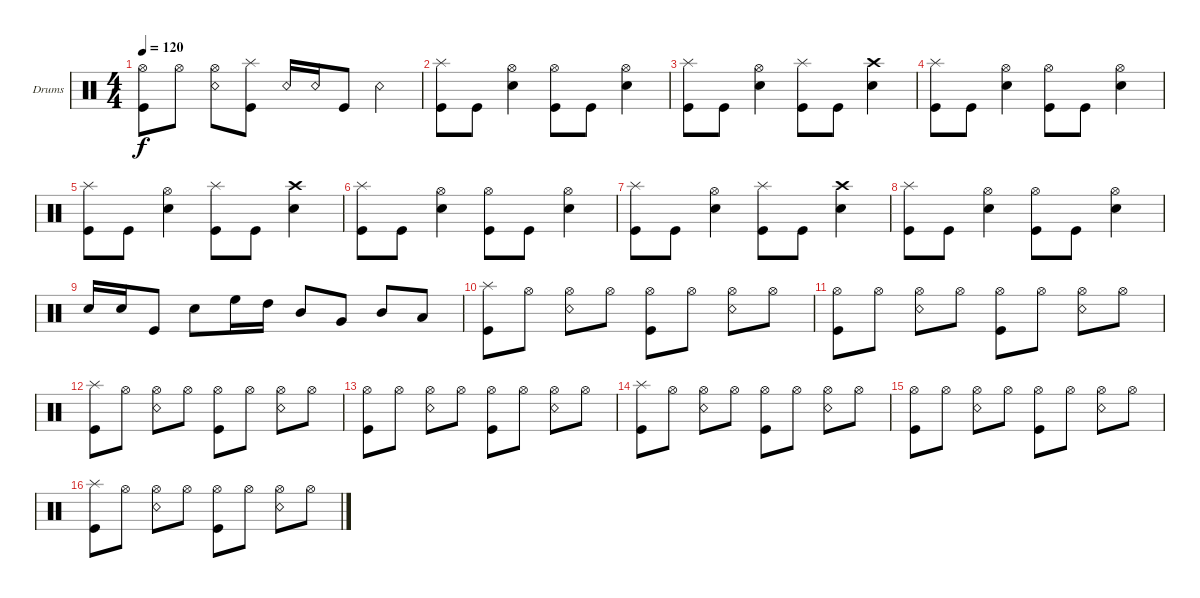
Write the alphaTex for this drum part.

\defaultSystemsLayout 4
\bracketExtendMode groupsimilarinstruments
\firstSystemTrackNameOrientation horizontal
\otherSystemsTrackNameOrientation horizontal
\track ("Drumkit" "Drums") {instrument percussion}
\staff {score}
\articulation defaults
\ts (4 4)
\tempo 120
\clef neutral
\scale
0.333333
\ks c
("Kick (hit)" "Hi-Hat (open)").8{dy f} "Hi-Hat (open)".8 ("Hi-Hat (open)" "Snare (rim shot)").8 ("Kick (hit)" "Splash (hit)").8 "Snare (rim shot)".16 "Snare (rim shot)".16 "Kick (hit)".8 "Snare (rim shot)".4 |
\scale
0.333333 ("Kick (hit)" "Splash (hit)").8 "Kick (hit)".8 ("Snare (hit) 2" "Hi-Hat (open)").4 ("Kick (hit)" "Hi-Hat (open)").8 "Kick (hit)".8 ("Snare (hit) 2" "Hi-Hat (open)").4 |
\scale
0.333333 ("Kick (hit)" "Splash (hit)").8 "Kick (hit)".8 ("Snare (hit) 2" "Hi-Hat (open)").4 ("Kick (hit)" "Splash (hit)").8 "Kick (hit)".8 ("Snare (hit) 2" "Crash high (hit)").4 |
\scale
0.333333 ("Kick (hit)" "Splash (hit)").8 "Kick (hit)".8 ("Snare (hit) 2" "Hi-Hat (open)").4 ("Kick (hit)" "Hi-Hat (open)").8 "Kick (hit)".8 ("Snare (hit) 2" "Hi-Hat (open)").4 |
\scale
0.333333 ("Kick (hit)" "Splash (hit)").8 "Kick (hit)".8 ("Snare (hit) 2" "Hi-Hat (open)").4 ("Kick (hit)" "Splash (hit)").8 "Kick (hit)".8 ("Snare (hit) 2" "Crash high (hit)").4 |
\scale
0.333333 ("Kick (hit)" "Splash (hit)").8 "Kick (hit)".8 ("Snare (hit) 2" "Hi-Hat (open)").4 ("Kick (hit)" "Hi-Hat (open)").8 "Kick (hit)".8 ("Snare (hit) 2" "Hi-Hat (open)").4 |
\scale
0.333333 ("Kick (hit)" "Splash (hit)").8 "Kick (hit)".8 ("Snare (hit) 2" "Hi-Hat (open)").4 ("Kick (hit)" "Splash (hit)").8 "Kick (hit)".8 ("Snare (hit) 2" "Crash high (hit)").4 |
\scale
0.333333 ("Kick (hit)" "Splash (hit)").8 "Kick (hit)".8 ("Snare (hit) 2" "Hi-Hat (open)").4 ("Kick (hit)" "Hi-Hat (open)").8 "Kick (hit)".8 ("Snare (hit) 2" "Hi-Hat (open)").4 |
\scale
0.333333 "Snare (hit) 2".16 "Snare (hit) 2".16 "Kick (hit)".8 "Snare (hit) 2".8 "High Floor Tom (hit)".16 "High Tom (hit)".16 "Mid Tom (hit)".8 "Very Low Tom (hit)".8 "Mid Tom (hit)".8 "Low Tom (hit)".8 |
\scale
0.333333 ("Kick (hit)" "Splash (hit)").8 "Hi-Hat (open)".8 ("Hi-Hat (open)" "Snare (rim shot)").8 "Hi-Hat (open)".8 ("Hi-Hat (open)" "Kick (hit)").8 "Hi-Hat (open)".8 ("Hi-Hat (open)" "Snare (rim shot)").8 "Hi-Hat (open)".8 |
\scale
0.333333 ("Kick (hit)" "Hi-Hat (open)").8 "Hi-Hat (open)".8 ("Hi-Hat (open)" "Snare (rim shot)").8 "Hi-Hat (open)".8 ("Hi-Hat (open)" "Kick (hit)").8 "Hi-Hat (open)".8 ("Hi-Hat (open)" "Snare (rim shot)").8 "Hi-Hat (open)".8 |
\scale
0.333333 ("Kick (hit)" "Splash (hit)").8 "Hi-Hat (open)".8 ("Hi-Hat (open)" "Snare (rim shot)").8 "Hi-Hat (open)".8 ("Hi-Hat (open)" "Kick (hit)").8 "Hi-Hat (open)".8 ("Hi-Hat (open)" "Snare (rim shot)").8 "Hi-Hat (open)".8 |
\scale
0.333333 ("Kick (hit)" "Hi-Hat (open)").8 "Hi-Hat (open)".8 ("Hi-Hat (open)" "Snare (rim shot)").8 "Hi-Hat (open)".8 ("Hi-Hat (open)" "Kick (hit)").8 "Hi-Hat (open)".8 ("Hi-Hat (open)" "Snare (rim shot)").8 "Hi-Hat (open)".8 |
\scale
0.333333 ("Kick (hit)" "Splash (hit)").8 "Hi-Hat (open)".8 ("Hi-Hat (open)" "Snare (rim shot)").8 "Hi-Hat (open)".8 ("Hi-Hat (open)" "Kick (hit)").8 "Hi-Hat (open)".8 ("Hi-Hat (open)" "Snare (rim shot)").8 "Hi-Hat (open)".8 |
\scale
0.333333 ("Kick (hit)" "Hi-Hat (open)").8 "Hi-Hat (open)".8 ("Hi-Hat (open)" "Snare (rim shot)").8 "Hi-Hat (open)".8 ("Hi-Hat (open)" "Kick (hit)").8 "Hi-Hat (open)".8 ("Hi-Hat (open)" "Snare (rim shot)").8 "Hi-Hat (open)".8 |
\scale
0.333333 ("Kick (hit)" "Splash (hit)").8 "Hi-Hat (open)".8 ("Hi-Hat (open)" "Snare (rim shot)").8 "Hi-Hat (open)".8 ("Hi-Hat (open)" "Kick (hit)").8 "Hi-Hat (open)".8 ("Hi-Hat (open)" "Snare (rim shot)").8 "Hi-Hat (open)".8
